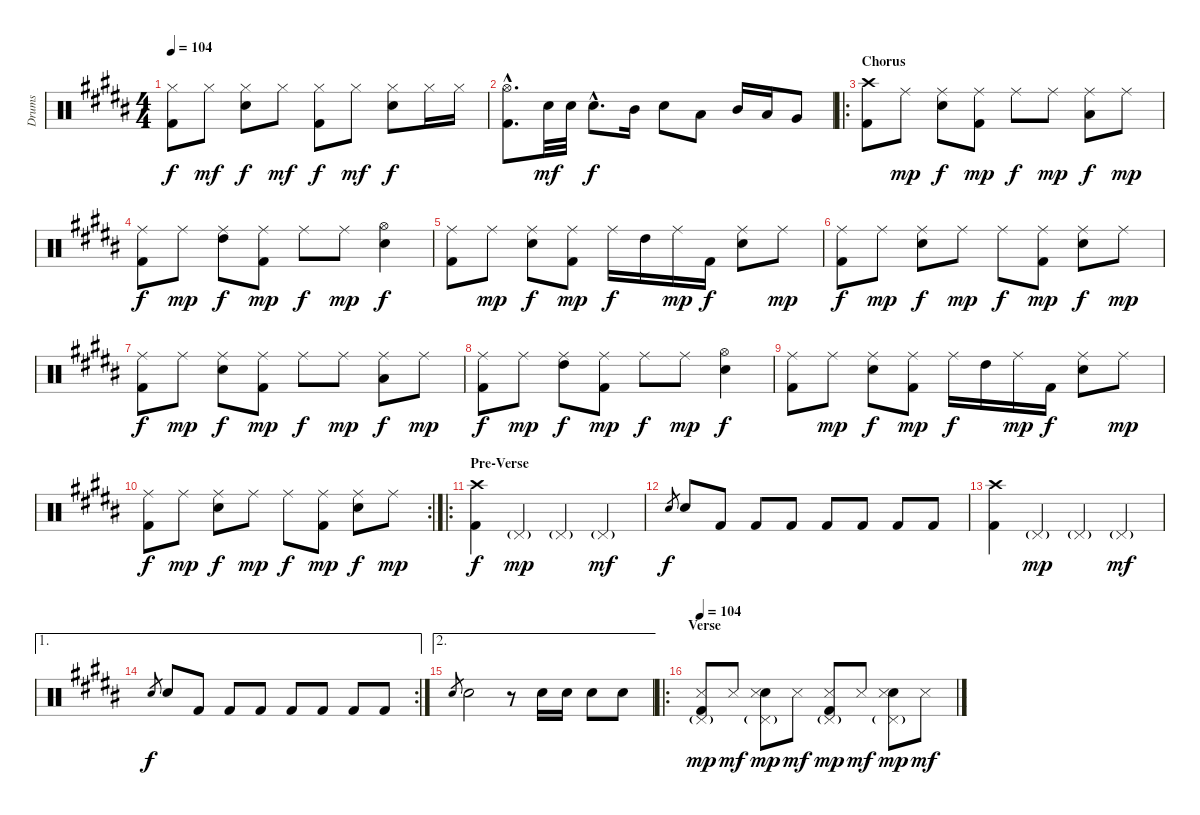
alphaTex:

\track ("Drums" "Drums") {instrument percussion}
\staff {score}
\articulation defaults
\ts (4 4)
\tempo 104
\clef neutral
\ks b
("Kick (hit) 2" "Hi-Hat (closed)").8{dy f} "Hi-Hat (closed)".8{dy mf} ("Snare (hit) 2" "Hi-Hat (closed)").8{dy f} "Hi-Hat (closed)".8{dy mf} ("Kick (hit) 2" "Hi-Hat (closed)").8{dy f} "Hi-Hat (closed)".8{dy mf} ("Snare (hit) 2" "Hi-Hat (closed)").8{dy f} "Hi-Hat (closed)".16 "Hi-Hat (closed)".16 |
("Kick (hit) 2"{hac} "Hi-Hat (open)"{hac}).8{d} "Snare (hit) 2".32{dy mf} "Snare (hit) 2".32 "Snare (hit) 2"{hac}.8{d dy f} "Mid Tom (hit)".16 "Snare (hit) 2".8 "Low Tom (hit)".8 "Mid Tom (hit)".16 "Low Tom (hit)".16 "Very Low Tom (hit)".8 |
\ro
\section ("" "Chorus")
("Kick (hit) 2" "Crash high (hit)").8 "Ride (middle)".8{dy mp} ("Ride (middle)" "Snare (hit) 2").8{dy f} ("Kick (hit) 2" "Ride (middle)").8{dy mp} "Ride (middle)".8{dy f} "Ride (middle)".8{dy mp} ("Ride (middle)" "Low Tom (hit)").8{dy f} "Ride (middle)".8{dy mp} |
("Kick (hit) 2" "Ride (middle)").8{dy f} "Ride (middle)".8{dy mp} ("Ride (middle)" "High Tom (hit)").8{dy f} ("Kick (hit) 2" "Ride (middle)").8{dy mp} "Ride (middle)".8{dy f} "Ride (middle)".8{dy mp} ("Snare (hit) 2" "Hi-Hat (open)").4{dy f} |
("Kick (hit) 2" "Ride (middle)").8 "Ride (middle)".8{dy mp} ("Ride (middle)" "Snare (hit) 2").8{dy f} ("Kick (hit) 2" "Ride (middle)").8{dy mp} "Ride (middle)".16{dy f} "High Tom (hit)".16 "Ride (middle)".16{dy mp} "Kick (hit) 2".16{dy f} ("Ride (middle)" "Snare (hit) 2").8 "Ride (middle)".8{dy mp} |
("Kick (hit) 2" "Ride (middle)").8{dy f} "Ride (middle)".8{dy mp} ("Ride (middle)" "Snare (hit) 2").8{dy f} "Ride (middle)".8{dy mp} "Ride (middle)".8{dy f} ("Kick (hit) 2" "Ride (middle)").8{dy mp} ("Ride (middle)" "Snare (hit) 2").8{dy f} "Ride (middle)".8{dy mp} |
("Kick (hit) 2" "Ride (middle)").8{dy f} "Ride (middle)".8{dy mp} ("Ride (middle)" "Snare (hit) 2").8{dy f} ("Kick (hit) 2" "Ride (middle)").8{dy mp} "Ride (middle)".8{dy f} "Ride (middle)".8{dy mp} ("Ride (middle)" "Low Tom (hit)").8{dy f} "Ride (middle)".8{dy mp} |
("Kick (hit) 2" "Ride (middle)").8{dy f} "Ride (middle)".8{dy mp} ("Ride (middle)" "High Tom (hit)").8{dy f} ("Kick (hit) 2" "Ride (middle)").8{dy mp} "Ride (middle)".8{dy f} "Ride (middle)".8{dy mp} ("Snare (hit) 2" "Hi-Hat (open)").4{dy f} |
("Kick (hit) 2" "Ride (middle)").8 "Ride (middle)".8{dy mp} ("Ride (middle)" "Snare (hit) 2").8{dy f} ("Kick (hit) 2" "Ride (middle)").8{dy mp} "Ride (middle)".16{dy f} "High Tom (hit)".16 "Ride (middle)".16{dy mp} "Kick (hit) 2".16{dy f} ("Ride (middle)" "Snare (hit) 2").8 "Ride (middle)".8{dy mp} |
\rc 2
("Kick (hit) 2" "Ride (middle)").8{dy f} "Ride (middle)".8{dy mp} ("Ride (middle)" "Snare (hit) 2").8{dy f} "Ride (middle)".8{dy mp} "Ride (middle)".8{dy f} ("Kick (hit) 2" "Ride (middle)").8{dy mp} ("Ride (middle)" "Snare (hit) 2").8{dy f} "Ride (middle)".8{dy mp} |
\ro
\section ("" "Pre-Verse")
("Kick (hit) 2" "Crash high (hit)").4{dy f} "Pedal Hi-Hat (hit)"{g}.4{dy mp} "Pedal Hi-Hat (hit)"{g}.4 "Pedal Hi-Hat (hit)"{g}.4{dy mf} |
"Snare (hit) 2".8{gr dy f} "Snare (hit) 2".8 "Kick (hit) 2".8 "Kick (hit) 2".8 "Kick (hit) 2".8 "Kick (hit) 2".8 "Kick (hit) 2".8 "Kick (hit) 2".8 "Kick (hit) 2".8 |
("Kick (hit) 2" "Crash high (hit)").4 "Pedal Hi-Hat (hit)"{g}.4{dy mp} "Pedal Hi-Hat (hit)"{g}.4 "Pedal Hi-Hat (hit)"{g}.4{dy mf} |
\ae 1
\rc 2 "Snare (hit) 2".8{gr dy f} "Snare (hit) 2".8 "Kick (hit) 2".8 "Kick (hit) 2".8 "Kick (hit) 2".8 "Kick (hit) 2".8 "Kick (hit) 2".8 "Kick (hit) 2".8 "Kick (hit) 2".8
|
\ae 2 "Snare (hit) 2".8{gr} "Snare (hit) 2".2
r.8 "Snare (hit) 2".16 "Snare (hit) 2".16 "Snare (hit) 2".8 "Snare (hit) 2".8 |
\ro
\section ("" "Verse")
\tempo 104
("Kick (hit) 2" "Metronome (hit)" "Pedal Hi-Hat (hit)"{g}).8{dy mp} "Metronome (hit)".8{dy mf} ("Snare (hit) 2" "Metronome (hit)" "Pedal Hi-Hat (hit)"{g}).8{dy mp} "Metronome (hit)".8{dy mf} ("Kick (hit) 2" "Metronome (hit)" "Pedal Hi-Hat (hit)"{g}).8{dy mp} "Metronome (hit)".8{dy mf} ("Snare (hit) 2" "Metronome (hit)" "Pedal Hi-Hat (hit)"{g}).8{dy mp} "Metronome (hit)".8{dy mf}
